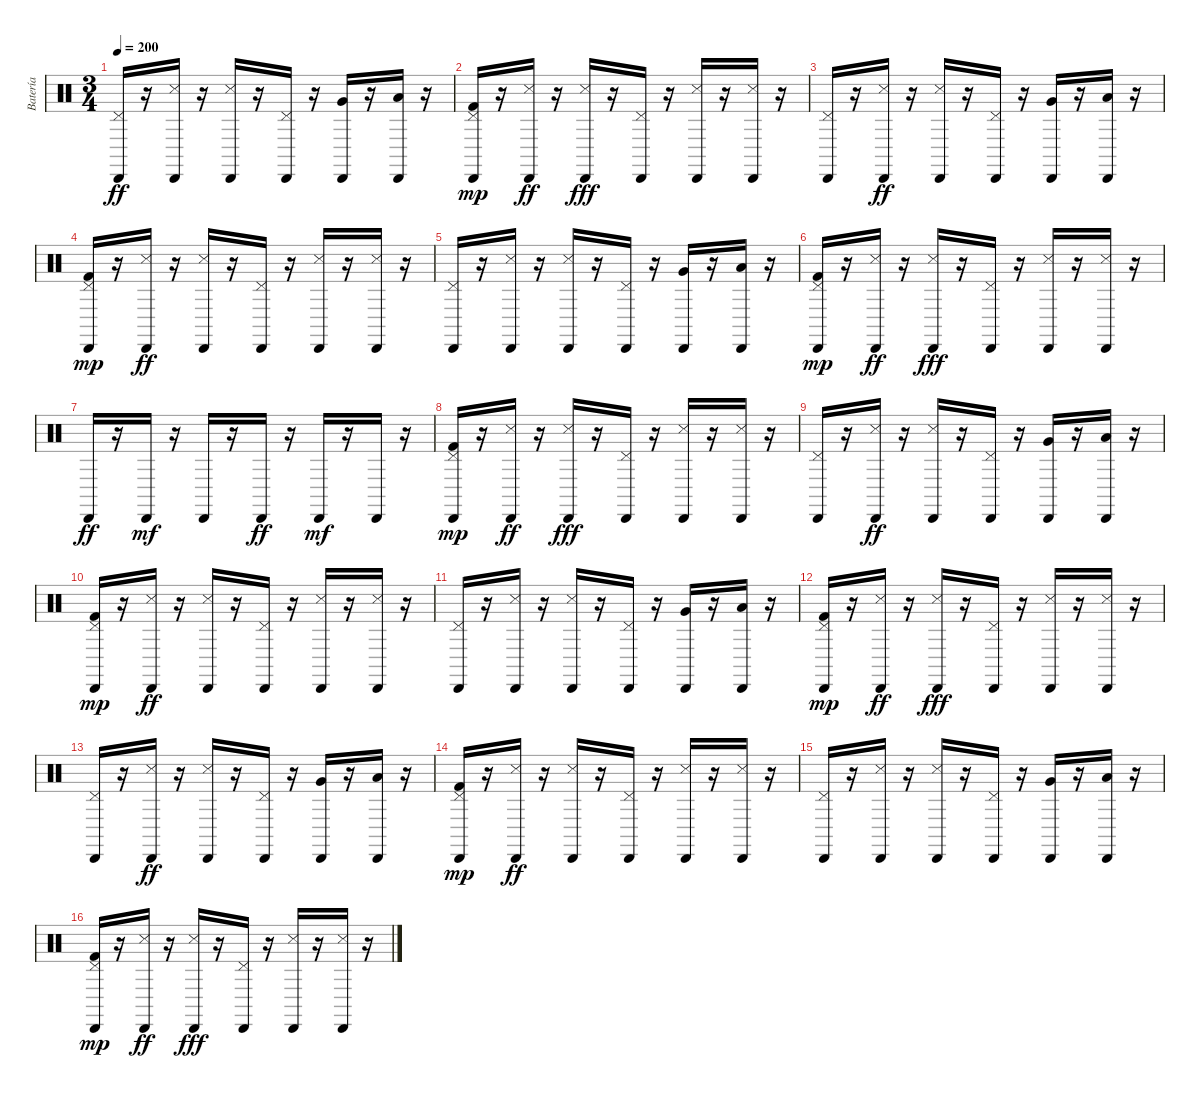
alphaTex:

\track ("Batería" "Batería") {instrument percussion}
\staff {score}
\articulation defaults
\ts (3 4)
\tempo 200
\clef neutral
\ks c
("Cabasa (hit)" "Pedal Hi-Hat (hit)").16{dy ff} r.16 ("Cabasa (hit)" "Snare (side stick) 3").16 r.16 ("Cabasa (hit)" "Snare (side stick) 3").16 r.16 ("Cabasa (hit)" "Pedal Hi-Hat (hit)").16 r.16 ("Cabasa (hit)" "Very Low Tom (hit)").16 r.16 ("Cabasa (hit)" "Low Floor Tom (hit)").16 r.16 |
("Cabasa (hit)" "Pedal Hi-Hat (hit)" "Kick (hit) 2").16{dy mp} r.16 ("Cabasa (hit)" "Snare (side stick) 3").16{dy ff} r.16 ("Cabasa (hit)" "Snare (side stick) 3").16{dy fff} r.16 ("Cabasa (hit)" "Pedal Hi-Hat (hit)").16 r.16 ("Cabasa (hit)" "Snare (side stick) 3").16 r.16 ("Cabasa (hit)" "Snare (side stick) 3").16 r.16 |
("Cabasa (hit)" "Pedal Hi-Hat (hit)").16 r.16 ("Cabasa (hit)" "Snare (side stick) 3").16{dy ff} r.16 ("Cabasa (hit)" "Snare (side stick) 3").16 r.16 ("Cabasa (hit)" "Pedal Hi-Hat (hit)").16 r.16 ("Cabasa (hit)" "Very Low Tom (hit)").16 r.16 ("Cabasa (hit)" "Low Floor Tom (hit)").16 r.16 |
("Cabasa (hit)" "Pedal Hi-Hat (hit)" "Kick (hit) 2").16{dy mp} r.16 ("Cabasa (hit)" "Snare (side stick) 3").16{dy ff} r.16 ("Cabasa (hit)" "Snare (side stick) 3").16 r.16 ("Cabasa (hit)" "Pedal Hi-Hat (hit)").16 r.16 ("Cabasa (hit)" "Snare (side stick) 3").16 r.16 ("Cabasa (hit)" "Snare (side stick) 3").16 r.16 |
("Cabasa (hit)" "Pedal Hi-Hat (hit)").16 r.16 ("Cabasa (hit)" "Snare (side stick) 3").16 r.16 ("Cabasa (hit)" "Snare (side stick) 3").16 r.16 ("Cabasa (hit)" "Pedal Hi-Hat (hit)").16 r.16 ("Cabasa (hit)" "Very Low Tom (hit)").16 r.16 ("Cabasa (hit)" "Low Floor Tom (hit)").16 r.16 |
("Cabasa (hit)" "Pedal Hi-Hat (hit)" "Kick (hit) 2").16{dy mp} r.16 ("Cabasa (hit)" "Snare (side stick) 3").16{dy ff} r.16 ("Cabasa (hit)" "Snare (side stick) 3").16{dy fff} r.16 ("Cabasa (hit)" "Pedal Hi-Hat (hit)").16 r.16 ("Cabasa (hit)" "Snare (side stick) 3").16 r.16 ("Cabasa (hit)" "Snare (side stick) 3").16 r.16 |
"Cabasa (hit)".16{dy ff} r.16 "Cabasa (hit)".16{dy mf} r.16 "Cabasa (hit)".16 r.16 "Cabasa (hit)".16{dy ff} r.16 "Cabasa (hit)".16{dy mf} r.16 "Cabasa (hit)".16 r.16 |
("Cabasa (hit)" "Pedal Hi-Hat (hit)" "Kick (hit) 2").16{dy mp} r.16 ("Cabasa (hit)" "Snare (side stick) 3").16{dy ff} r.16 ("Cabasa (hit)" "Snare (side stick) 3").16{dy fff} r.16 ("Cabasa (hit)" "Pedal Hi-Hat (hit)").16 r.16 ("Cabasa (hit)" "Snare (side stick) 3").16 r.16 ("Cabasa (hit)" "Snare (side stick) 3").16 r.16 |
("Cabasa (hit)" "Pedal Hi-Hat (hit)").16 r.16 ("Cabasa (hit)" "Snare (side stick) 3").16{dy ff} r.16 ("Cabasa (hit)" "Snare (side stick) 3").16 r.16 ("Cabasa (hit)" "Pedal Hi-Hat (hit)").16 r.16 ("Cabasa (hit)" "Very Low Tom (hit)").16 r.16 ("Cabasa (hit)" "Low Floor Tom (hit)").16 r.16 |
("Cabasa (hit)" "Pedal Hi-Hat (hit)" "Kick (hit) 2").16{dy mp} r.16 ("Cabasa (hit)" "Snare (side stick) 3").16{dy ff} r.16 ("Cabasa (hit)" "Snare (side stick) 3").16 r.16 ("Cabasa (hit)" "Pedal Hi-Hat (hit)").16 r.16 ("Cabasa (hit)" "Snare (side stick) 3").16 r.16 ("Cabasa (hit)" "Snare (side stick) 3").16 r.16 |
("Cabasa (hit)" "Pedal Hi-Hat (hit)").16 r.16 ("Cabasa (hit)" "Snare (side stick) 3").16 r.16 ("Cabasa (hit)" "Snare (side stick) 3").16 r.16 ("Cabasa (hit)" "Pedal Hi-Hat (hit)").16 r.16 ("Cabasa (hit)" "Very Low Tom (hit)").16 r.16 ("Cabasa (hit)" "Low Floor Tom (hit)").16 r.16 |
("Cabasa (hit)" "Pedal Hi-Hat (hit)" "Kick (hit) 2").16{dy mp} r.16 ("Cabasa (hit)" "Snare (side stick) 3").16{dy ff} r.16 ("Cabasa (hit)" "Snare (side stick) 3").16{dy fff} r.16 ("Cabasa (hit)" "Pedal Hi-Hat (hit)").16 r.16 ("Cabasa (hit)" "Snare (side stick) 3").16 r.16 ("Cabasa (hit)" "Snare (side stick) 3").16 r.16 |
("Cabasa (hit)" "Pedal Hi-Hat (hit)").16 r.16 ("Cabasa (hit)" "Snare (side stick) 3").16{dy ff} r.16 ("Cabasa (hit)" "Snare (side stick) 3").16 r.16 ("Cabasa (hit)" "Pedal Hi-Hat (hit)").16 r.16 ("Cabasa (hit)" "Very Low Tom (hit)").16 r.16 ("Cabasa (hit)" "Low Floor Tom (hit)").16 r.16 |
("Cabasa (hit)" "Pedal Hi-Hat (hit)" "Kick (hit) 2").16{dy mp} r.16 ("Cabasa (hit)" "Snare (side stick) 3").16{dy ff} r.16 ("Cabasa (hit)" "Snare (side stick) 3").16 r.16 ("Cabasa (hit)" "Pedal Hi-Hat (hit)").16 r.16 ("Cabasa (hit)" "Snare (side stick) 3").16 r.16 ("Cabasa (hit)" "Snare (side stick) 3").16 r.16 |
("Cabasa (hit)" "Pedal Hi-Hat (hit)").16 r.16 ("Cabasa (hit)" "Snare (side stick) 3").16 r.16 ("Cabasa (hit)" "Snare (side stick) 3").16 r.16 ("Cabasa (hit)" "Pedal Hi-Hat (hit)").16 r.16 ("Cabasa (hit)" "Very Low Tom (hit)").16 r.16 ("Cabasa (hit)" "Low Floor Tom (hit)").16 r.16 |
("Cabasa (hit)" "Pedal Hi-Hat (hit)" "Kick (hit) 2").16{dy mp} r.16 ("Cabasa (hit)" "Snare (side stick) 3").16{dy ff} r.16 ("Cabasa (hit)" "Snare (side stick) 3").16{dy fff} r.16 ("Cabasa (hit)" "Pedal Hi-Hat (hit)").16 r.16 ("Cabasa (hit)" "Snare (side stick) 3").16 r.16 ("Cabasa (hit)" "Snare (side stick) 3").16 r.16
